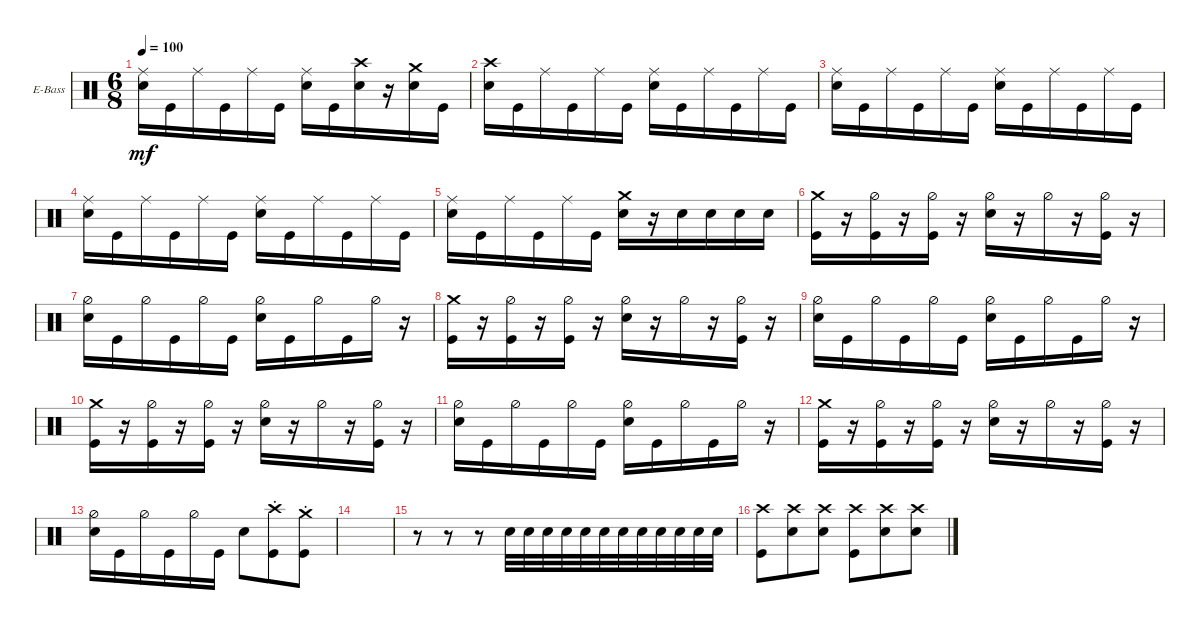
\defaultSystemsLayout 4
\bracketExtendMode groupsimilarinstruments
\firstSystemTrackNameOrientation horizontal
\otherSystemsTrackNameOrientation horizontal
\track ("Drums" "E-Bass") {instrument percussion}
\staff {score}
\articulation defaults
\ts (6 8)
\tempo 100
\clef neutral
\ks c
("Snare (hit) 2" "Ride (middle)").16{dy mf} "Kick (hit)".16 "Ride (middle)".16 "Kick (hit)".16 "Ride (middle)".16 "Kick (hit)".16 ("Snare (hit) 2" "Ride (middle)").16 "Kick (hit)".16 ("Snare (hit) 2" "Crash high (hit)").16 r.16 ("Snare (hit) 2" "Crash medium (hit)").16 "Kick (hit)".16 |
("Snare (hit) 2" "Crash high (hit)").16 "Kick (hit)".16 "Ride (middle)".16 "Kick (hit)".16 "Ride (middle)".16 "Kick (hit)".16 ("Snare (hit) 2" "Ride (middle)").16 "Kick (hit)".16 "Ride (middle)".16 "Kick (hit)".16 "Ride (middle)".16 "Kick (hit)".16 |
("Snare (hit) 2" "Ride (middle)").16 "Kick (hit)".16 "Ride (middle)".16 "Kick (hit)".16 "Ride (middle)".16 "Kick (hit)".16 ("Snare (hit) 2" "Ride (middle)").16 "Kick (hit)".16 "Ride (middle)".16 "Kick (hit)".16 "Ride (middle)".16 "Kick (hit)".16 |
("Snare (hit) 2" "Ride (middle)").16 "Kick (hit)".16 "Ride (middle)".16 "Kick (hit)".16 "Ride (middle)".16 "Kick (hit)".16 ("Snare (hit) 2" "Ride (middle)").16 "Kick (hit)".16 "Ride (middle)".16 "Kick (hit)".16 "Ride (middle)".16 "Kick (hit)".16 |
("Snare (hit) 2" "Ride (middle)").16 "Kick (hit)".16 "Ride (middle)".16 "Kick (hit)".16 "Ride (middle)".16 "Kick (hit)".16 ("Snare (hit) 2" "Crash medium (hit)").16 r.16 "Snare (hit) 2".16 "Snare (hit) 2".16 "Snare (hit) 2".16 "Snare (hit) 2".16 |
("Crash medium (hit)" "Kick (hit)").16 r.16 ("Hi-Hat (half)" "Kick (hit)").16 r.16 ("Hi-Hat (half)" "Kick (hit)").16 r.16 ("Hi-Hat (half)" "Snare (hit) 2").16 r.16 "Hi-Hat (half)".16 r.16 ("Hi-Hat (half)" "Kick (hit)").16 r.16 |
("Hi-Hat (half)" "Snare (hit) 2").16 "Kick (hit)".16 "Hi-Hat (half)".16 "Kick (hit)".16 "Hi-Hat (half)".16 "Kick (hit)".16 ("Hi-Hat (half)" "Snare (hit) 2").16 "Kick (hit)".16 "Hi-Hat (half)".16 "Kick (hit)".16 "Hi-Hat (half)".16 r.16 |
("Crash medium (hit)" "Kick (hit)").16 r.16 ("Hi-Hat (half)" "Kick (hit)").16 r.16 ("Hi-Hat (half)" "Kick (hit)").16 r.16 ("Hi-Hat (half)" "Snare (hit) 2").16 r.16 "Hi-Hat (half)".16 r.16 ("Hi-Hat (half)" "Kick (hit)").16 r.16 |
("Hi-Hat (half)" "Snare (hit) 2").16 "Kick (hit)".16 "Hi-Hat (half)".16 "Kick (hit)".16 "Hi-Hat (half)".16 "Kick (hit)".16 ("Hi-Hat (half)" "Snare (hit) 2").16 "Kick (hit)".16 "Hi-Hat (half)".16 "Kick (hit)".16 "Hi-Hat (half)".16 r.16 |
("Crash medium (hit)" "Kick (hit)").16 r.16 ("Hi-Hat (half)" "Kick (hit)").16 r.16 ("Hi-Hat (half)" "Kick (hit)").16 r.16 ("Hi-Hat (half)" "Snare (hit) 2").16 r.16 "Hi-Hat (half)".16 r.16 ("Hi-Hat (half)" "Kick (hit)").16 r.16 |
("Hi-Hat (half)" "Snare (hit) 2").16 "Kick (hit)".16 "Hi-Hat (half)".16 "Kick (hit)".16 "Hi-Hat (half)".16 "Kick (hit)".16 ("Hi-Hat (half)" "Snare (hit) 2").16 "Kick (hit)".16 "Hi-Hat (half)".16 "Kick (hit)".16 "Hi-Hat (half)".16 r.16 |
("Crash medium (hit)" "Kick (hit)").16 r.16 ("Hi-Hat (half)" "Kick (hit)").16 r.16 ("Hi-Hat (half)" "Kick (hit)").16 r.16 ("Hi-Hat (half)" "Snare (hit) 2").16 r.16 "Hi-Hat (half)".16 r.16 ("Hi-Hat (half)" "Kick (hit)").16 r.16 |
("Hi-Hat (half)" "Snare (hit) 2").16 "Kick (hit)".16 "Hi-Hat (half)".16 "Kick (hit)".16 "Hi-Hat (half)".16 "Kick (hit)".16 "Snare (hit) 2".8 ("Kick (hit)" "Crash high (hit)"{st}).8 ("Kick (hit)" "Crash medium (hit)"{st}).8 |
|
r.8 r.8 r.8 "Snare (hit) 2".32 "Snare (hit) 2".32 "Snare (hit) 2".32 "Snare (hit) 2".32 "Snare (hit) 2".32 "Snare (hit) 2".32 "Snare (hit) 2".32 "Snare (hit) 2".32 "Snare (hit) 2".32 "Snare (hit) 2".32 "Snare (hit) 2".32 "Snare (hit) 2".32 |
("Crash high (hit)" "Kick (hit)").8 ("Crash high (hit)" "Snare (hit) 2").8 ("Crash high (hit)" "Snare (hit) 2").8 ("Crash high (hit)" "Kick (hit)").8 ("Snare (hit) 2" "Crash high (hit)").8 ("Snare (hit) 2" "Crash high (hit)").8
